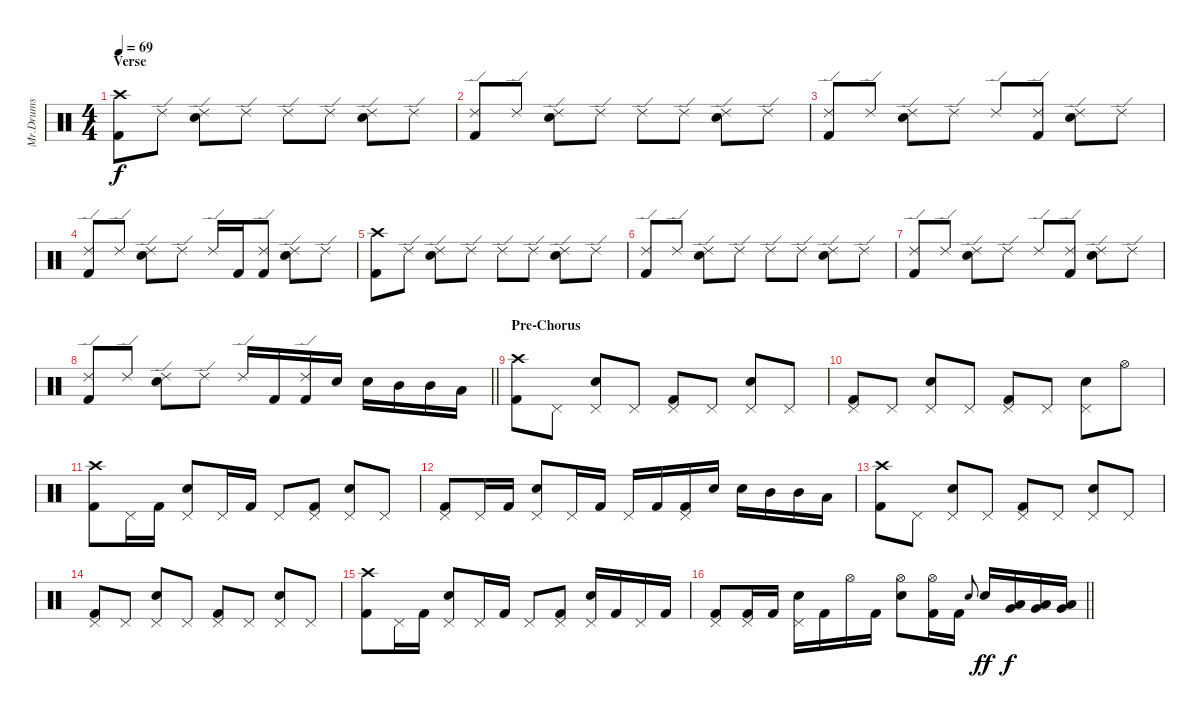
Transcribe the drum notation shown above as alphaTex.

\track ("Mr.Drums" "Mr.Drums") {instrument percussion}
\staff {score}
\articulation defaults
\ts (4 4)
\section ("" "Verse")
\tempo 69
\clef neutral
\ks c
("Crash high (hit)" "Kick (hit) 2").8{dy f} "Ride (edge) 2".8 ("Ride (edge) 2" "Electric Snare (hit)").8 "Ride (edge) 2".8 "Ride (edge) 2".8 "Ride (edge) 2".8 ("Ride (edge) 2" "Electric Snare (hit)").8 "Ride (edge) 2".8 |
("Ride (edge) 2" "Kick (hit) 2").8 "Ride (edge) 2".8 ("Ride (edge) 2" "Electric Snare (hit)").8 "Ride (edge) 2".8 "Ride (edge) 2".8 "Ride (edge) 2".8 ("Ride (edge) 2" "Electric Snare (hit)").8 "Ride (edge) 2".8 |
("Ride (edge) 2" "Kick (hit) 2").8 "Ride (edge) 2".8 ("Ride (edge) 2" "Electric Snare (hit)").8 "Ride (edge) 2".8 "Ride (edge) 2".8 ("Ride (edge) 2" "Kick (hit) 2").8 ("Ride (edge) 2" "Electric Snare (hit)").8 "Ride (edge) 2".8 |
("Ride (edge) 2" "Kick (hit) 2").8 "Ride (edge) 2".8 ("Ride (edge) 2" "Electric Snare (hit)").8 "Ride (edge) 2".8 "Ride (edge) 2".16 "Kick (hit) 2".16 ("Ride (edge) 2" "Kick (hit) 2").8 ("Ride (edge) 2" "Electric Snare (hit)").8 "Ride (edge) 2".8 |
("Crash high (hit)" "Kick (hit) 2").8 "Ride (edge) 2".8 ("Ride (edge) 2" "Electric Snare (hit)").8 "Ride (edge) 2".8 "Ride (edge) 2".8 "Ride (edge) 2".8 ("Ride (edge) 2" "Electric Snare (hit)").8 "Ride (edge) 2".8 |
("Ride (edge) 2" "Kick (hit) 2").8 "Ride (edge) 2".8 ("Ride (edge) 2" "Electric Snare (hit)").8 "Ride (edge) 2".8 "Ride (edge) 2".8 "Ride (edge) 2".8 ("Ride (edge) 2" "Electric Snare (hit)").8 "Ride (edge) 2".8 |
("Ride (edge) 2" "Kick (hit) 2").8 "Ride (edge) 2".8 ("Ride (edge) 2" "Electric Snare (hit)").8 "Ride (edge) 2".8 "Ride (edge) 2".8 ("Ride (edge) 2" "Kick (hit) 2").8 ("Ride (edge) 2" "Electric Snare (hit)").8 "Ride (edge) 2".8 |
\barLineRight lightlight
("Ride (edge) 2" "Kick (hit) 2").8 "Ride (edge) 2".8 ("Ride (edge) 2" "Electric Snare (hit)").8 "Ride (edge) 2".8 "Ride (edge) 2".16 "Kick (hit) 2".16 ("Ride (edge) 2" "Kick (hit) 2").16 "Electric Snare (hit)".16 "Electric Snare (hit)".16 "Mid Tom (hit)".16 "Mid Tom (hit)".16 "Low Tom (hit)".16 |
\section ("" "Pre-Chorus")
("Crash high (hit)" "Kick (hit) 2").8 "Pedal Hi-Hat (hit)".8 ("Pedal Hi-Hat (hit)" "Electric Snare (hit)").8 "Pedal Hi-Hat (hit)".8 ("Pedal Hi-Hat (hit)" "Kick (hit) 2").8 "Pedal Hi-Hat (hit)".8 ("Pedal Hi-Hat (hit)" "Electric Snare (hit)").8 "Pedal Hi-Hat (hit)".8 |
("Pedal Hi-Hat (hit)" "Kick (hit) 2").8 "Pedal Hi-Hat (hit)".8 ("Pedal Hi-Hat (hit)" "Electric Snare (hit)").8 "Pedal Hi-Hat (hit)".8 ("Pedal Hi-Hat (hit)" "Kick (hit) 2").8 "Pedal Hi-Hat (hit)".8 ("Pedal Hi-Hat (hit)" "Electric Snare (hit)").8 "Hi-Hat (open)".8 |
("Crash high (hit)" "Kick (hit) 2").8 "Pedal Hi-Hat (hit)".16 "Kick (hit) 2".16 ("Pedal Hi-Hat (hit)" "Electric Snare (hit)").8 "Pedal Hi-Hat (hit)".16 "Kick (hit) 2".16 "Pedal Hi-Hat (hit)".8 ("Pedal Hi-Hat (hit)" "Kick (hit) 2").8 ("Pedal Hi-Hat (hit)" "Electric Snare (hit)").8 "Pedal Hi-Hat (hit)".8 |
("Pedal Hi-Hat (hit)" "Kick (hit) 2").8 "Pedal Hi-Hat (hit)".16 "Kick (hit) 2".16 ("Pedal Hi-Hat (hit)" "Electric Snare (hit)").8 "Pedal Hi-Hat (hit)".16 "Kick (hit) 2".16 "Pedal Hi-Hat (hit)".16 "Kick (hit) 2".16 ("Pedal Hi-Hat (hit)" "Kick (hit) 2").16 "Electric Snare (hit)".16 "Electric Snare (hit)".16 "Mid Tom (hit)".16 "Mid Tom (hit)".16 "Low Tom (hit)".16 |
("Crash high (hit)" "Kick (hit) 2").8 "Pedal Hi-Hat (hit)".8 ("Pedal Hi-Hat (hit)" "Electric Snare (hit)").8 "Pedal Hi-Hat (hit)".8 ("Pedal Hi-Hat (hit)" "Kick (hit) 2").8 "Pedal Hi-Hat (hit)".8 ("Pedal Hi-Hat (hit)" "Electric Snare (hit)").8 "Pedal Hi-Hat (hit)".8 |
("Pedal Hi-Hat (hit)" "Kick (hit) 2").8 "Pedal Hi-Hat (hit)".8 ("Pedal Hi-Hat (hit)" "Electric Snare (hit)").8 "Pedal Hi-Hat (hit)".8 ("Pedal Hi-Hat (hit)" "Kick (hit) 2").8 "Pedal Hi-Hat (hit)".8 ("Pedal Hi-Hat (hit)" "Electric Snare (hit)").8 "Pedal Hi-Hat (hit)".8 |
("Crash high (hit)" "Kick (hit) 2").8 "Pedal Hi-Hat (hit)".16 "Kick (hit) 2".16 ("Pedal Hi-Hat (hit)" "Electric Snare (hit)").8 "Pedal Hi-Hat (hit)".16 "Kick (hit) 2".16 "Pedal Hi-Hat (hit)".8 ("Pedal Hi-Hat (hit)" "Kick (hit) 2").8 ("Pedal Hi-Hat (hit)" "Electric Snare (hit)").16 "Kick (hit) 2".16 "Pedal Hi-Hat (hit)".16 "Kick (hit) 2".16 |
\barLineRight lightlight
("Pedal Hi-Hat (hit)" "Kick (hit) 2").8 ("Pedal Hi-Hat (hit)" "Kick (hit) 2").16 "Kick (hit) 2".16 ("Pedal Hi-Hat (hit)" "Electric Snare (hit)").16 "Kick (hit) 2".16 "Hi-Hat (open)".16 "Kick (hit) 2".16 ("Hi-Hat (open)" "Electric Snare (hit)").8 ("Hi-Hat (open)" "Kick (hit) 2").16 "Kick (hit) 2".16 "Electric Snare (hit)".8{gr onbeat} "Electric Snare (hit)".16{dy ff} ("Low Tom (hit)" "Very Low Tom (hit)").16{dy f} ("Low Tom (hit)" "Very Low Tom (hit)").16 ("Very Low Tom (hit)" "Low Floor Tom (hit)").16
